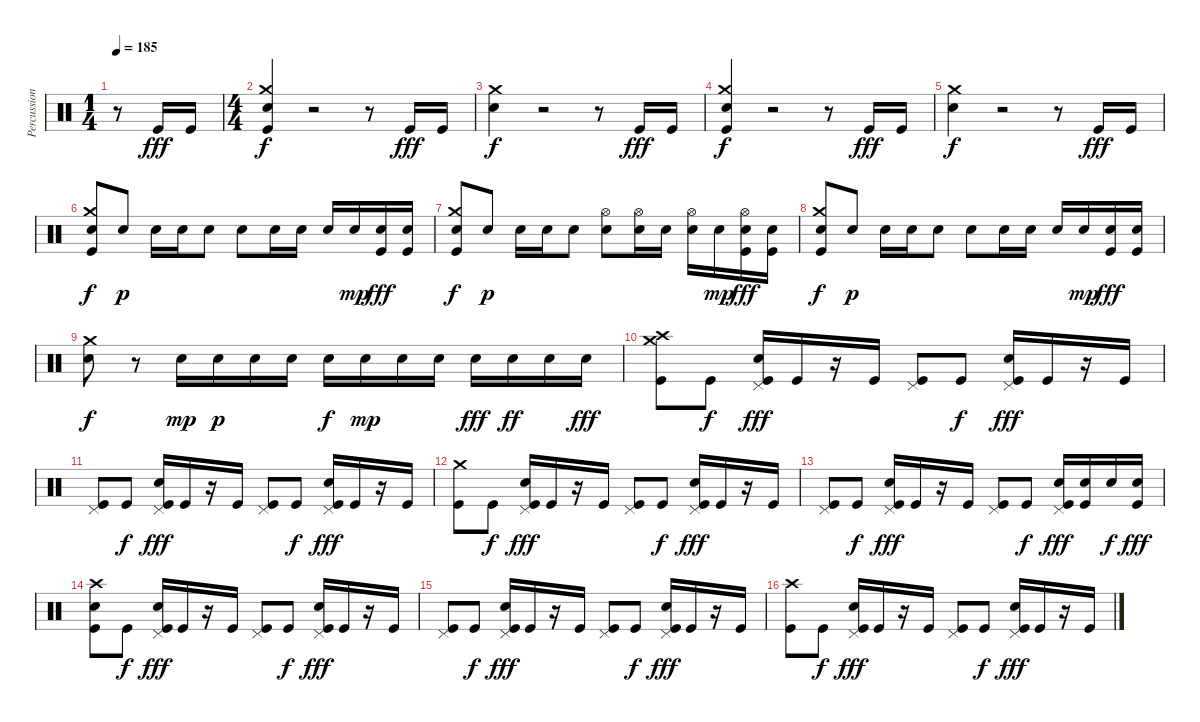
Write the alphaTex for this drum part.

\track ("Percussions" "Percussion") {instrument percussion}
\staff {score}
\articulation defaults
\ts (1 4)
\tempo 185
\clef neutral
\ks c
r.8{dy fff} "Kick (hit)".16 "Kick (hit)".16 |
\ts (4 4)
("Crash medium (hit)" "Electric Snare (hit)" "Kick (hit)").4{dy f} r.2 r.8 "Kick (hit)".16{dy fff} "Kick (hit)".16 |
("Crash medium (hit)" "Electric Snare (hit)").4{dy f} r.2{volume 0} r.8 "Kick (hit)".16{dy fff volume 16} "Kick (hit)".16 |
("Crash medium (hit)" "Electric Snare (hit)" "Kick (hit)").4{dy f} r.2 r.8 "Kick (hit)".16{dy fff} "Kick (hit)".16 |
("Crash medium (hit)" "Electric Snare (hit)").4{dy f} r.2{volume 0} r.8 "Kick (hit)".16{dy fff volume 16} "Kick (hit)".16 |
("Crash medium (hit)" "Electric Snare (hit)" "Kick (hit)").8{dy f} "Electric Snare (hit)".8{dy p} "Electric Snare (hit)".16 "Electric Snare (hit)".16 "Electric Snare (hit)".8 "Electric Snare (hit)".8 "Electric Snare (hit)".16 "Electric Snare (hit)".16 "Electric Snare (hit)".16 "Electric Snare (hit)".16{dy mp} ("Electric Snare (hit)" "Kick (hit)").16{dy fff} ("Electric Snare (hit)" "Kick (hit)").16 |
("Crash medium (hit)" "Electric Snare (hit)" "Kick (hit)").8{dy f} "Electric Snare (hit)".8{dy p} "Electric Snare (hit)".16 "Electric Snare (hit)".16 "Electric Snare (hit)".8 ("Hi-Hat (open)" "Electric Snare (hit)").8 ("Hi-Hat (open)" "Electric Snare (hit)").16 "Electric Snare (hit)".16 ("Hi-Hat (open)" "Electric Snare (hit)").16 "Electric Snare (hit)".16{dy mp} ("Hi-Hat (open)" "Electric Snare (hit)" "Kick (hit)").16{dy fff} ("Electric Snare (hit)" "Kick (hit)").16 |
("Crash medium (hit)" "Electric Snare (hit)" "Kick (hit)").8{dy f} "Electric Snare (hit)".8{dy p} "Electric Snare (hit)".16 "Electric Snare (hit)".16 "Electric Snare (hit)".8 "Electric Snare (hit)".8 "Electric Snare (hit)".16 "Electric Snare (hit)".16 "Electric Snare (hit)".16 "Electric Snare (hit)".16{dy mp} ("Electric Snare (hit)" "Kick (hit)").16{dy fff} ("Electric Snare (hit)" "Kick (hit)").16 |
("Crash medium (hit)" "Electric Snare (hit)").8{dy f} r.8 "Electric Snare (hit)".16{dy mp volume 16} "Electric Snare (hit)".16{dy p} "Electric Snare (hit)".16 "Electric Snare (hit)".16 "Electric Snare (hit)".16{dy f} "Electric Snare (hit)".16{dy mp} "Electric Snare (hit)".16 "Electric Snare (hit)".16 "Electric Snare (hit)".16{dy fff} "Electric Snare (hit)".16{dy ff} "Electric Snare (hit)".16 "Electric Snare (hit)".16{dy fff} |
\section ("" "")
("Crash medium (hit)" "Crash high (hit)" "Kick (hit)").8 "Kick (hit)".8{dy f} ("Pedal Hi-Hat (hit)" "Electric Snare (hit)" "Kick (hit)").16{dy fff} "Kick (hit)".16 r.16 "Kick (hit)".16 ("Pedal Hi-Hat (hit)" "Kick (hit)").8 "Kick (hit)".8{dy f} ("Pedal Hi-Hat (hit)" "Electric Snare (hit)" "Kick (hit)").16{dy fff} "Kick (hit)".16 r.16 "Kick (hit)".16 |
("Pedal Hi-Hat (hit)" "Kick (hit)").8 "Kick (hit)".8{dy f} ("Pedal Hi-Hat (hit)" "Electric Snare (hit)" "Kick (hit)").16{dy fff} "Kick (hit)".16 r.16 "Kick (hit)".16 ("Pedal Hi-Hat (hit)" "Kick (hit)").8 "Kick (hit)".8{dy f} ("Pedal Hi-Hat (hit)" "Electric Snare (hit)" "Kick (hit)").16{dy fff} "Kick (hit)".16 r.16 "Kick (hit)".16 |
("Crash medium (hit)" "Kick (hit)").8 "Kick (hit)".8{dy f} ("Pedal Hi-Hat (hit)" "Electric Snare (hit)" "Kick (hit)").16{dy fff} "Kick (hit)".16 r.16 "Kick (hit)".16 ("Pedal Hi-Hat (hit)" "Kick (hit)").8 "Kick (hit)".8{dy f} ("Pedal Hi-Hat (hit)" "Electric Snare (hit)" "Kick (hit)").16{dy fff} "Kick (hit)".16 r.16 "Kick (hit)".16 |
("Pedal Hi-Hat (hit)" "Kick (hit)").8 "Kick (hit)".8{dy f} ("Pedal Hi-Hat (hit)" "Electric Snare (hit)" "Kick (hit)").16{dy fff} "Kick (hit)".16 r.16 "Kick (hit)".16 ("Pedal Hi-Hat (hit)" "Kick (hit)").8 "Kick (hit)".8{dy f} ("Pedal Hi-Hat (hit)" "Electric Snare (hit)" "Kick (hit)").16{dy fff} ("Electric Snare (hit)" "Kick (hit)").16 "Electric Snare (hit)".16{dy f} ("Electric Snare (hit)" "Kick (hit)").16{dy fff} |
("Crash high (hit)" "Electric Snare (hit)" "Kick (hit)").8 "Kick (hit)".8{dy f} ("Pedal Hi-Hat (hit)" "Electric Snare (hit)" "Kick (hit)").16{dy fff} "Kick (hit)".16 r.16 "Kick (hit)".16 ("Pedal Hi-Hat (hit)" "Kick (hit)").8 "Kick (hit)".8{dy f} ("Pedal Hi-Hat (hit)" "Electric Snare (hit)" "Kick (hit)").16{dy fff} "Kick (hit)".16 r.16 "Kick (hit)".16 |
("Pedal Hi-Hat (hit)" "Kick (hit)").8 "Kick (hit)".8{dy f} ("Pedal Hi-Hat (hit)" "Electric Snare (hit)" "Kick (hit)").16{dy fff} "Kick (hit)".16 r.16 "Kick (hit)".16 ("Pedal Hi-Hat (hit)" "Kick (hit)").8 "Kick (hit)".8{dy f} ("Pedal Hi-Hat (hit)" "Electric Snare (hit)" "Kick (hit)").16{dy fff} "Kick (hit)".16 r.16 "Kick (hit)".16 |
("Crash high (hit)" "Kick (hit)").8 "Kick (hit)".8{dy f} ("Pedal Hi-Hat (hit)" "Electric Snare (hit)" "Kick (hit)").16{dy fff} "Kick (hit)".16 r.16 "Kick (hit)".16 ("Pedal Hi-Hat (hit)" "Kick (hit)").8 "Kick (hit)".8{dy f} ("Pedal Hi-Hat (hit)" "Electric Snare (hit)" "Kick (hit)").16{dy fff} "Kick (hit)".16 r.16 "Kick (hit)".16
